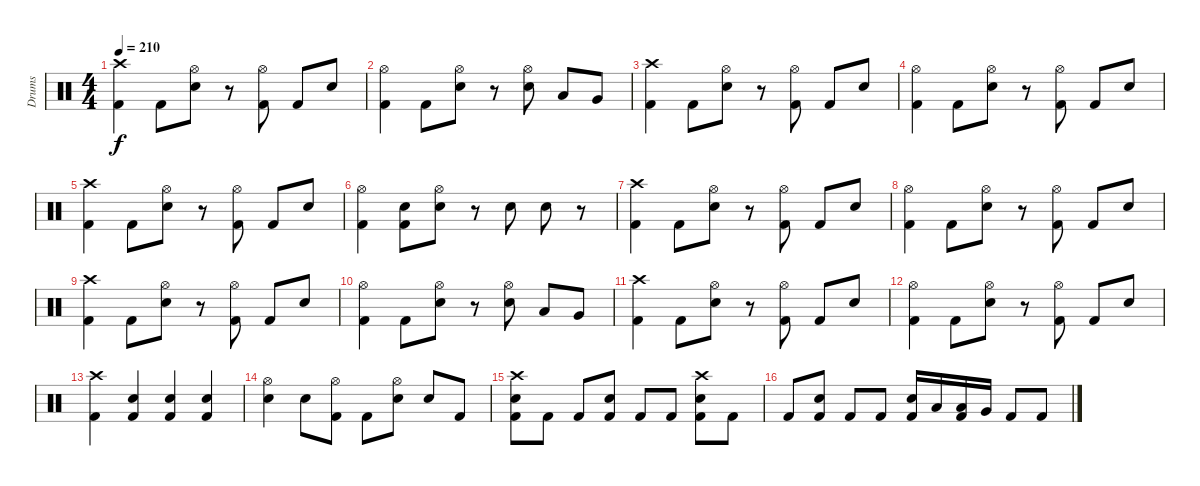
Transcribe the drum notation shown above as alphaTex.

\track ("Drums" "Drums") {instrument percussion}
\staff {score}
\articulation defaults
\ts (4 4)
\tempo 210
\clef neutral
\ks c
("Crash high (hit)" "Kick (hit) 2").4{dy f} "Kick (hit) 2".8 ("Hi-Hat (open)" "Snare (hit) 2").8 r.8 ("Hi-Hat (open)" "Kick (hit) 2").8 "Kick (hit) 2".8 "Snare (hit) 2".8 |
("Hi-Hat (open)" "Kick (hit) 2").4 "Kick (hit) 2".8 ("Hi-Hat (open)" "Snare (hit) 2").8 r.8 ("Hi-Hat (open)" "Snare (hit) 2").8 "Low Tom (hit)".8 "Very Low Tom (hit)".8 |
("Crash high (hit)" "Kick (hit) 2").4 "Kick (hit) 2".8 ("Hi-Hat (open)" "Snare (hit) 2").8 r.8 ("Hi-Hat (open)" "Kick (hit) 2").8 "Kick (hit) 2".8 "Snare (hit) 2".8 |
("Hi-Hat (open)" "Kick (hit) 2").4 "Kick (hit) 2".8 ("Hi-Hat (open)" "Snare (hit) 2").8 r.8 ("Hi-Hat (open)" "Kick (hit) 2").8 "Kick (hit) 2".8 "Snare (hit) 2".8 |
("Crash high (hit)" "Kick (hit) 2").4 "Kick (hit) 2".8 ("Hi-Hat (open)" "Snare (hit) 2").8 r.8 ("Hi-Hat (open)" "Kick (hit) 2").8 "Kick (hit) 2".8 "Snare (hit) 2".8 |
("Hi-Hat (open)" "Kick (hit) 2").4 ("Snare (hit) 2" "Kick (hit) 2").8 ("Hi-Hat (open)" "Snare (hit) 2").8 r.8 "Snare (hit) 2".8 "Snare (hit) 2".8 r.8 |
("Crash high (hit)" "Kick (hit) 2").4 "Kick (hit) 2".8 ("Hi-Hat (open)" "Snare (hit) 2").8 r.8 ("Hi-Hat (open)" "Kick (hit) 2").8 "Kick (hit) 2".8 "Snare (hit) 2".8 |
("Hi-Hat (open)" "Kick (hit) 2").4 "Kick (hit) 2".8 ("Hi-Hat (open)" "Snare (hit) 2").8 r.8 ("Hi-Hat (open)" "Kick (hit) 2").8 "Kick (hit) 2".8 "Snare (hit) 2".8 |
("Crash high (hit)" "Kick (hit) 2").4 "Kick (hit) 2".8 ("Hi-Hat (open)" "Snare (hit) 2").8 r.8 ("Hi-Hat (open)" "Kick (hit) 2").8 "Kick (hit) 2".8 "Snare (hit) 2".8 |
("Hi-Hat (open)" "Kick (hit) 2").4 "Kick (hit) 2".8 ("Hi-Hat (open)" "Snare (hit) 2").8 r.8 ("Hi-Hat (open)" "Snare (hit) 2").8 "Low Tom (hit)".8 "Very Low Tom (hit)".8 |
("Crash high (hit)" "Kick (hit) 2").4 "Kick (hit) 2".8 ("Hi-Hat (open)" "Snare (hit) 2").8 r.8 ("Hi-Hat (open)" "Kick (hit) 2").8 "Kick (hit) 2".8 "Snare (hit) 2".8 |
("Hi-Hat (open)" "Kick (hit) 2").4 "Kick (hit) 2".8 ("Hi-Hat (open)" "Snare (hit) 2").8 r.8 ("Hi-Hat (open)" "Kick (hit) 2").8 "Kick (hit) 2".8 "Snare (hit) 2".8 |
("Crash high (hit)" "Kick (hit) 2").4 ("Snare (hit) 2" "Kick (hit) 2").4 ("Snare (hit) 2" "Kick (hit) 2").4 ("Snare (hit) 2" "Kick (hit) 2").4 |
("Hi-Hat (open)" "Snare (hit) 2").4 "Snare (hit) 2".8 ("Hi-Hat (open)" "Kick (hit) 2").8 "Kick (hit) 2".8 ("Hi-Hat (open)" "Snare (hit) 2").8 "Snare (hit) 2".8 "Kick (hit) 2".8 |
("Crash high (hit)" "Snare (hit) 2" "Kick (hit) 2").8 "Kick (hit) 2".8 "Kick (hit) 2".8 ("Snare (hit) 2" "Kick (hit) 2").8 "Kick (hit) 2".8 "Kick (hit) 2".8 ("Crash high (hit)" "Snare (hit) 2" "Kick (hit) 2").8 "Kick (hit) 2".8 |
"Kick (hit) 2".8 ("Snare (hit) 2" "Kick (hit) 2").8 "Kick (hit) 2".8 "Kick (hit) 2".8 ("Snare (hit) 2" "Kick (hit) 2").16 "Low Tom (hit)".16 ("Low Tom (hit)" "Kick (hit) 2").16 "Very Low Tom (hit)".16 "Kick (hit) 2".8 "Kick (hit) 2".8
